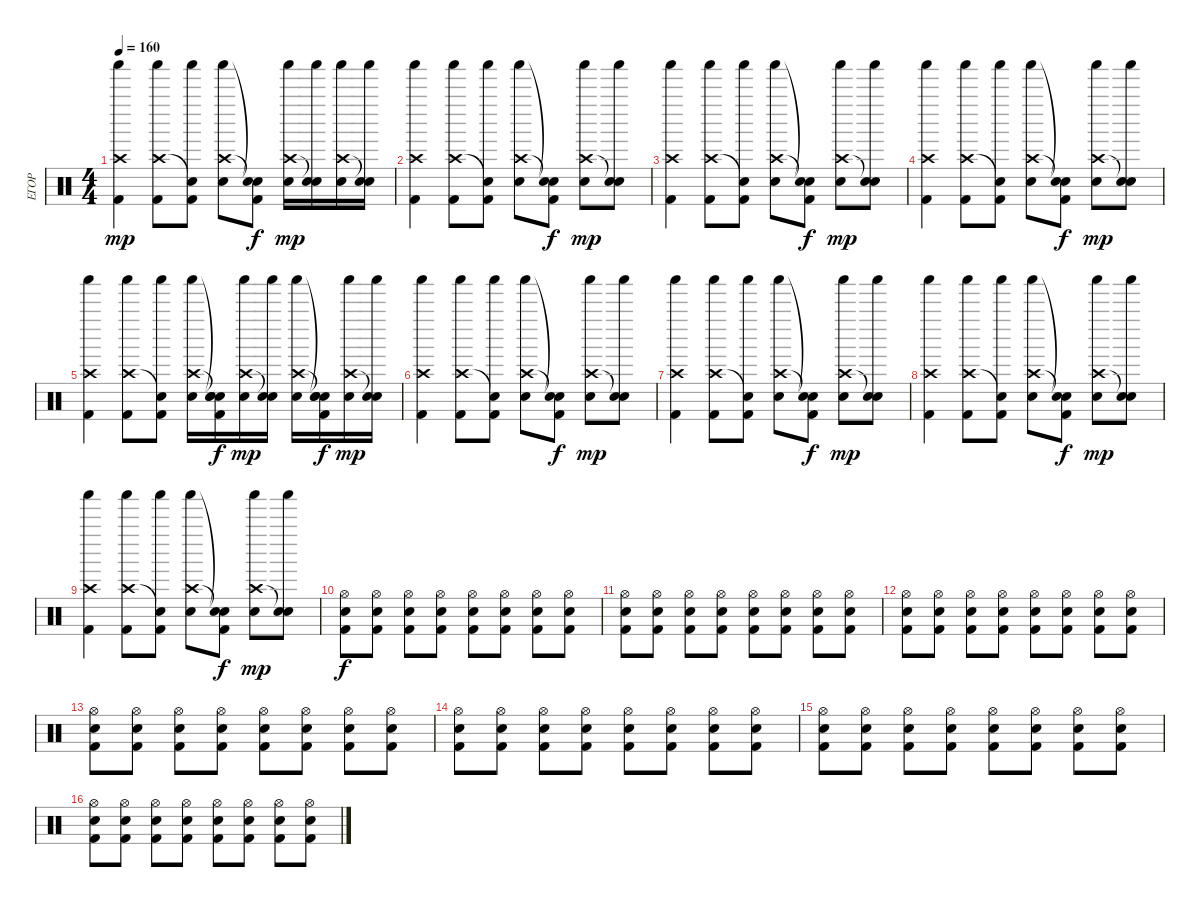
\track ("ЕГОР" "ЕГОР") {instrument percussion}
\staff {score}
\articulation defaults
\ts (4 4)
\tempo 160
\clef neutral
\ks c
("Crash high (hit)" "Shaker (hit)" "Kick (hit) 2").4{dy mp} ("Crash high (hit)" "Shaker (hit)" "Kick (hit) 2").8 ("Snare (hit)"{t} "Shaker (hit)" "Kick (hit) 2").8 ("Crash high (hit)" "Shaker (hit)" "Electric Snare (hit)").8 ("Snare (hit)"{t} "Snare (hit)"{t} "Kick (hit) 2").8{dy f} ("Crash high (hit)" "Shaker (hit)" "Electric Snare (hit)").16{dy mp} ("Snare (hit)"{t} "Shaker (hit)" "Electric Snare (hit)").16 ("Crash high (hit)" "Shaker (hit)" "Electric Snare (hit)").16 ("Snare (hit)"{t} "Shaker (hit)" "Electric Snare (hit)").16 |
("Crash high (hit)" "Shaker (hit)" "Kick (hit) 2").4 ("Crash high (hit)" "Shaker (hit)" "Kick (hit) 2").8 ("Snare (hit)"{t} "Shaker (hit)" "Kick (hit) 2").8 ("Crash high (hit)" "Shaker (hit)" "Electric Snare (hit)").8 ("Snare (hit)"{t} "Snare (hit)"{t} "Kick (hit) 2").8{dy f} ("Crash high (hit)" "Shaker (hit)" "Electric Snare (hit)").8{dy mp} ("Snare (hit)"{t} "Shaker (hit)" "Electric Snare (hit)").8 |
("Crash high (hit)" "Shaker (hit)" "Kick (hit) 2").4 ("Crash high (hit)" "Shaker (hit)" "Kick (hit) 2").8 ("Snare (hit)"{t} "Shaker (hit)" "Kick (hit) 2").8 ("Crash high (hit)" "Shaker (hit)" "Electric Snare (hit)").8 ("Snare (hit)"{t} "Snare (hit)"{t} "Kick (hit) 2").8{dy f} ("Crash high (hit)" "Shaker (hit)" "Electric Snare (hit)").8{dy mp} ("Snare (hit)"{t} "Shaker (hit)" "Electric Snare (hit)").8 |
("Crash high (hit)" "Shaker (hit)" "Kick (hit) 2").4 ("Crash high (hit)" "Shaker (hit)" "Kick (hit) 2").8 ("Snare (hit)"{t} "Shaker (hit)" "Kick (hit) 2").8 ("Crash high (hit)" "Shaker (hit)" "Electric Snare (hit)").8 ("Snare (hit)"{t} "Snare (hit)"{t} "Kick (hit) 2").8{dy f} ("Crash high (hit)" "Shaker (hit)" "Electric Snare (hit)").8{dy mp} ("Snare (hit)"{t} "Shaker (hit)" "Electric Snare (hit)").8 |
("Crash high (hit)" "Shaker (hit)" "Kick (hit) 2").4 ("Crash high (hit)" "Shaker (hit)" "Kick (hit) 2").8 ("Snare (hit)"{t} "Shaker (hit)" "Kick (hit) 2").8 ("Crash high (hit)" "Shaker (hit)" "Electric Snare (hit)").16 ("Snare (hit)"{t} "Snare (hit)"{t} "Electric Snare (hit)" "Kick (hit) 2").16{dy f} ("Crash high (hit)" "Shaker (hit)" "Electric Snare (hit)").16{dy mp} ("Snare (hit)"{t} "Shaker (hit)" "Electric Snare (hit)").16 ("Crash high (hit)" "Shaker (hit)" "Electric Snare (hit)").16 ("Snare (hit)"{t} "Snare (hit)"{t} "Electric Snare (hit)" "Kick (hit) 2").16{dy f} ("Crash high (hit)" "Shaker (hit)" "Electric Snare (hit)").16{dy mp} ("Snare (hit)"{t} "Shaker (hit)" "Electric Snare (hit)").16 |
("Crash high (hit)" "Shaker (hit)" "Kick (hit) 2").4 ("Crash high (hit)" "Shaker (hit)" "Kick (hit) 2").8 ("Snare (hit)"{t} "Shaker (hit)" "Kick (hit) 2").8 ("Crash high (hit)" "Shaker (hit)" "Electric Snare (hit)").8 ("Snare (hit)"{t} "Snare (hit)"{t} "Kick (hit) 2").8{dy f} ("Crash high (hit)" "Shaker (hit)" "Electric Snare (hit)").8{dy mp} ("Snare (hit)"{t} "Shaker (hit)" "Electric Snare (hit)").8 |
("Crash high (hit)" "Shaker (hit)" "Kick (hit) 2").4 ("Crash high (hit)" "Shaker (hit)" "Kick (hit) 2").8 ("Snare (hit)"{t} "Shaker (hit)" "Kick (hit) 2").8 ("Crash high (hit)" "Shaker (hit)" "Electric Snare (hit)").8 ("Snare (hit)"{t} "Snare (hit)"{t} "Kick (hit) 2").8{dy f} ("Crash high (hit)" "Shaker (hit)" "Electric Snare (hit)").8{dy mp} ("Snare (hit)"{t} "Shaker (hit)" "Electric Snare (hit)").8 |
("Crash high (hit)" "Shaker (hit)" "Kick (hit) 2").4 ("Crash high (hit)" "Shaker (hit)" "Kick (hit) 2").8 ("Snare (hit)"{t} "Shaker (hit)" "Kick (hit) 2").8 ("Crash high (hit)" "Shaker (hit)" "Electric Snare (hit)").8 ("Snare (hit)"{t} "Snare (hit)"{t} "Kick (hit) 2").8{dy f} ("Crash high (hit)" "Shaker (hit)" "Electric Snare (hit)").8{dy mp} ("Snare (hit)"{t} "Shaker (hit)" "Electric Snare (hit)").8 |
("Crash high (hit)" "Shaker (hit)" "Kick (hit) 2").4 ("Crash high (hit)" "Shaker (hit)" "Kick (hit) 2").8 ("Snare (hit)"{t} "Shaker (hit)" "Kick (hit) 2").8 ("Crash high (hit)" "Shaker (hit)" "Electric Snare (hit)").8 ("Snare (hit)"{t} "Snare (hit)"{t} "Kick (hit) 2").8{dy f} ("Crash high (hit)" "Shaker (hit)" "Electric Snare (hit)").8{dy mp} ("Snare (hit)"{t} "Shaker (hit)" "Electric Snare (hit)").8 |
("Hi-Hat (open)" "Electric Snare (hit)" "Kick (hit) 2").8{dy f} ("Hi-Hat (open)" "Electric Snare (hit)" "Kick (hit) 2").8 ("Hi-Hat (open)" "Electric Snare (hit)" "Kick (hit) 2").8 ("Hi-Hat (open)" "Electric Snare (hit)" "Kick (hit) 2").8 ("Hi-Hat (open)" "Electric Snare (hit)" "Kick (hit) 2").8 ("Hi-Hat (open)" "Electric Snare (hit)" "Kick (hit) 2").8 ("Hi-Hat (open)" "Electric Snare (hit)" "Kick (hit) 2").8 ("Hi-Hat (open)" "Electric Snare (hit)" "Kick (hit) 2").8 |
("Hi-Hat (open)" "Electric Snare (hit)" "Kick (hit) 2").8 ("Hi-Hat (open)" "Electric Snare (hit)" "Kick (hit) 2").8 ("Hi-Hat (open)" "Electric Snare (hit)" "Kick (hit) 2").8 ("Hi-Hat (open)" "Electric Snare (hit)" "Kick (hit) 2").8 ("Hi-Hat (open)" "Electric Snare (hit)" "Kick (hit) 2").8 ("Hi-Hat (open)" "Electric Snare (hit)" "Kick (hit) 2").8 ("Hi-Hat (open)" "Electric Snare (hit)" "Kick (hit) 2").8 ("Hi-Hat (open)" "Electric Snare (hit)" "Kick (hit) 2").8 |
("Hi-Hat (open)" "Electric Snare (hit)" "Kick (hit) 2").8 ("Hi-Hat (open)" "Electric Snare (hit)" "Kick (hit) 2").8 ("Hi-Hat (open)" "Electric Snare (hit)" "Kick (hit) 2").8 ("Hi-Hat (open)" "Electric Snare (hit)" "Kick (hit) 2").8 ("Hi-Hat (open)" "Electric Snare (hit)" "Kick (hit) 2").8 ("Hi-Hat (open)" "Electric Snare (hit)" "Kick (hit) 2").8 ("Hi-Hat (open)" "Electric Snare (hit)" "Kick (hit) 2").8 ("Hi-Hat (open)" "Electric Snare (hit)" "Kick (hit) 2").8 |
("Hi-Hat (open)" "Electric Snare (hit)" "Kick (hit) 2").8 ("Hi-Hat (open)" "Electric Snare (hit)" "Kick (hit) 2").8 ("Hi-Hat (open)" "Electric Snare (hit)" "Kick (hit) 2").8 ("Hi-Hat (open)" "Electric Snare (hit)" "Kick (hit) 2").8 ("Hi-Hat (open)" "Electric Snare (hit)" "Kick (hit) 2").8 ("Hi-Hat (open)" "Electric Snare (hit)" "Kick (hit) 2").8 ("Hi-Hat (open)" "Electric Snare (hit)" "Kick (hit) 2").8 ("Hi-Hat (open)" "Electric Snare (hit)" "Kick (hit) 2").8 |
("Hi-Hat (open)" "Electric Snare (hit)" "Kick (hit) 2").8 ("Hi-Hat (open)" "Electric Snare (hit)" "Kick (hit) 2").8 ("Hi-Hat (open)" "Electric Snare (hit)" "Kick (hit) 2").8 ("Hi-Hat (open)" "Electric Snare (hit)" "Kick (hit) 2").8 ("Hi-Hat (open)" "Electric Snare (hit)" "Kick (hit) 2").8 ("Hi-Hat (open)" "Electric Snare (hit)" "Kick (hit) 2").8 ("Hi-Hat (open)" "Electric Snare (hit)" "Kick (hit) 2").8 ("Hi-Hat (open)" "Electric Snare (hit)" "Kick (hit) 2").8 |
("Hi-Hat (open)" "Electric Snare (hit)" "Kick (hit) 2").8 ("Hi-Hat (open)" "Electric Snare (hit)" "Kick (hit) 2").8 ("Hi-Hat (open)" "Electric Snare (hit)" "Kick (hit) 2").8 ("Hi-Hat (open)" "Electric Snare (hit)" "Kick (hit) 2").8 ("Hi-Hat (open)" "Electric Snare (hit)" "Kick (hit) 2").8 ("Hi-Hat (open)" "Electric Snare (hit)" "Kick (hit) 2").8 ("Hi-Hat (open)" "Electric Snare (hit)" "Kick (hit) 2").8 ("Hi-Hat (open)" "Electric Snare (hit)" "Kick (hit) 2").8 |
("Hi-Hat (open)" "Electric Snare (hit)" "Kick (hit) 2").8 ("Hi-Hat (open)" "Electric Snare (hit)" "Kick (hit) 2").8 ("Hi-Hat (open)" "Electric Snare (hit)" "Kick (hit) 2").8 ("Hi-Hat (open)" "Electric Snare (hit)" "Kick (hit) 2").8 ("Hi-Hat (open)" "Electric Snare (hit)" "Kick (hit) 2").8 ("Hi-Hat (open)" "Electric Snare (hit)" "Kick (hit) 2").8 ("Hi-Hat (open)" "Electric Snare (hit)" "Kick (hit) 2").8 ("Hi-Hat (open)" "Electric Snare (hit)" "Kick (hit) 2").8
